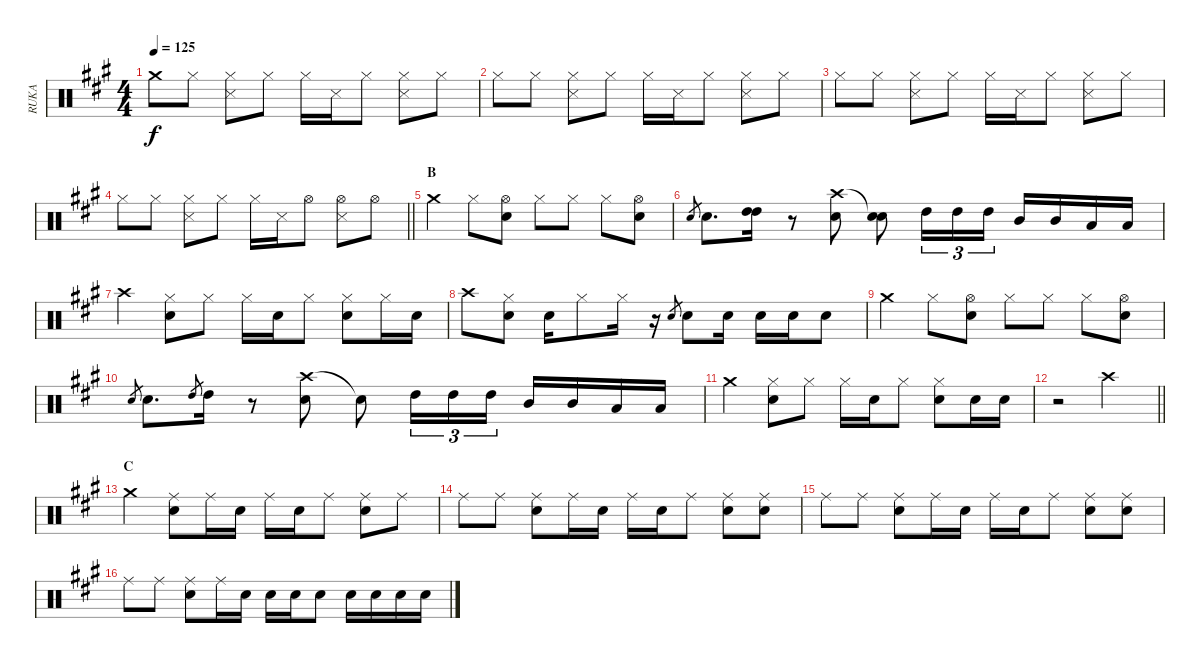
\track ("RUKA" "RUKA") {instrument percussion}
\staff {score}
\articulation defaults
\ts (4 4)
\tempo 125
\clef neutral
\ks a "Crash medium (hit)".8{dy f} "Hi-Hat (closed)".8
("Hi-Hat (closed)" "Snare (side stick) 3").8 "Hi-Hat (closed)".8 "Hi-Hat (closed)".16 "Snare (side stick) 3".16 "Hi-Hat (closed)".8 ("Hi-Hat (closed)" "Snare (side stick) 3").8 "Hi-Hat (closed)".8 |
"Hi-Hat (closed)".8 "Hi-Hat (closed)".8 ("Hi-Hat (closed)" "Snare (side stick) 3").8 "Hi-Hat (closed)".8 "Hi-Hat (closed)".16 "Snare (side stick) 3".16 "Hi-Hat (closed)".8 ("Hi-Hat (closed)" "Snare (side stick) 3").8 "Hi-Hat (closed)".8 |
"Hi-Hat (closed)".8 "Hi-Hat (closed)".8 ("Hi-Hat (closed)" "Snare (side stick) 3").8 "Hi-Hat (closed)".8 "Hi-Hat (closed)".16 "Snare (side stick) 3".16 "Hi-Hat (closed)".8 ("Hi-Hat (closed)" "Snare (side stick) 3").8 "Hi-Hat (closed)".8 |
\barLineRight lightlight "Hi-Hat (closed)".8 "Hi-Hat (closed)".8
("Hi-Hat (closed)" "Snare (side stick) 3").8 "Hi-Hat (closed)".8 "Hi-Hat (closed)".16 "Snare (side stick) 3".16 "Hi-Hat (open)".8 ("Hi-Hat (open)" "Snare (side stick) 3").8 "Hi-Hat (open)".8 |
\section ("" "B")
"Crash medium (hit)".4 "Hi-Hat (closed)".8 ("Hi-Hat (open)" "Snare (hit) 2").8 "Hi-Hat (closed)".8 "Hi-Hat (closed)".8 "Hi-Hat (closed)".8 ("Hi-Hat (open)" "Snare (hit) 2").8 |
"Snare (hit) 2".8{gr} "Snare (hit) 2".8{d} ("High Tom (hit)" "High Tom (hit)").16 r.8 ("Crash high (hit)" "Snare (hit) 2").8 ("Snare (hit)"{t} "Snare (hit) 2").8 "High Tom (hit)".16{tu (3 2)} "High Tom (hit)".16{tu (3 2)} "High Tom (hit)".16{tu (3 2)} "Mid Tom (hit)".16 "Mid Tom (hit)".16 "Low Tom (hit)".16 "Low Tom (hit)".16 |
"Crash high (hit)".4 ("Hi-Hat (closed)" "Snare (hit) 2").8 "Hi-Hat (closed)".8 "Hi-Hat (closed)".16 "Snare (hit) 2".16 "Hi-Hat (closed)".8 ("Hi-Hat (closed)" "Snare (hit) 2").8 "Hi-Hat (closed)".16 "Snare (hit) 2".16 |
"Crash high (hit)".8 ("Hi-Hat (closed)" "Snare (hit) 2").8 "Snare (hit) 2".16 "Hi-Hat (closed)".8 "Hi-Hat (closed)".16 r.16 "Snare (hit) 2".8{gr} "Snare (hit) 2".8 "Snare (hit) 2".16 "Snare (hit) 2".16 "Snare (hit) 2".16 "Snare (hit) 2".8 |
"Crash medium (hit)".4 "Hi-Hat (closed)".8 ("Hi-Hat (open)" "Snare (hit) 2").8 "Hi-Hat (closed)".8 "Hi-Hat (closed)".8 "Hi-Hat (closed)".8 ("Hi-Hat (open)" "Snare (hit) 2").8 |
"Snare (hit) 2".8{gr} "Snare (hit) 2".8{d} "High Tom (hit)".8{gr} "High Tom (hit)".16 r.8 ("Crash high (hit)" "Snare (hit) 2").8 "Snare (hit)"{t}.8 "High Tom (hit)".16{tu (3 2)} "High Tom (hit)".16{tu (3 2)} "High Tom (hit)".16{tu (3 2)} "Mid Tom (hit)".16 "Mid Tom (hit)".16 "Low Tom (hit)".16 "Low Tom (hit)".16 |
"Crash medium (hit)".4 ("Hi-Hat (closed)" "Snare (hit) 2").8 "Hi-Hat (closed)".8 "Hi-Hat (closed)".16 "Snare (hit) 2".16 "Hi-Hat (closed)".8 ("Hi-Hat (closed)" "Snare (hit) 2").8 "Snare (hit) 2".16 "Snare (hit) 2".16 |
\barLineRight lightlight
r.2 "Crash high (hit)".2 |
\section ("" "C")
"Crash medium (hit)".4 ("Ride (middle)" "Snare (hit) 2").8 "Ride (middle)".16 "Snare (hit) 2".16 "Ride (middle)".16 "Snare (hit) 2".16 "Ride (middle)".8 ("Ride (middle)" "Snare (hit) 2").8 "Ride (middle)".8 |
"Ride (middle)".8 "Ride (middle)".8 ("Ride (middle)" "Snare (hit) 2").8 "Ride (middle)".16 "Snare (hit) 2".16 "Ride (middle)".16 "Snare (hit) 2".16 "Ride (middle)".8 ("Ride (middle)" "Snare (hit) 2").8 ("Ride (middle)" "Snare (hit) 2").8 |
"Ride (middle)".8 "Ride (middle)".8 ("Ride (middle)" "Snare (hit) 2").8 "Ride (middle)".16 "Snare (hit) 2".16 "Ride (middle)".16 "Snare (hit) 2".16 "Ride (middle)".8 ("Ride (middle)" "Snare (hit) 2").8 ("Ride (middle)" "Snare (hit) 2").8 |
"Ride (middle)".8 "Ride (middle)".8 ("Ride (middle)" "Snare (hit) 2").8 "Ride (middle)".16 "Snare (hit) 2".16 "Snare (hit) 2".16 "Snare (hit) 2".16 "Snare (hit) 2".8 "Snare (hit) 2".16 "Snare (hit) 2".16 "Snare (hit) 2".16 "Snare (hit) 2".16
